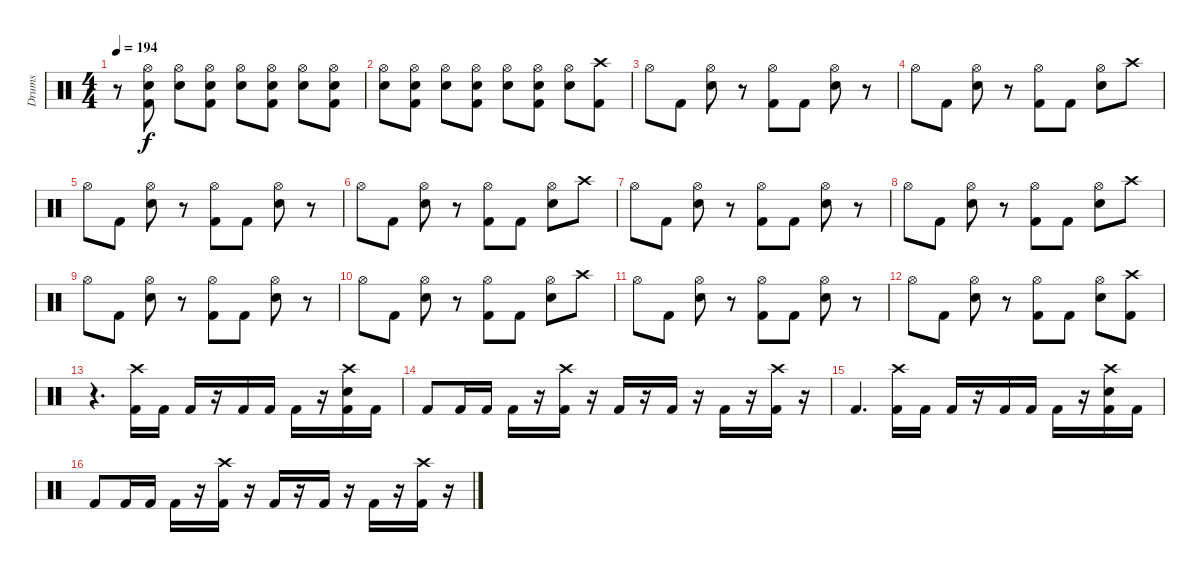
\track ("Drums" "Drums") {instrument percussion}
\staff {score}
\articulation defaults
\ts (4 4)
\tempo 194
\clef neutral
\ks c
r.8{dy f} ("Hi-Hat (open)" "Electric Snare (hit)" "Kick (hit) 2").8 ("Hi-Hat (open)" "Electric Snare (hit)").8 ("Hi-Hat (open)" "Electric Snare (hit)" "Kick (hit) 2").8 ("Hi-Hat (open)" "Electric Snare (hit)").8 ("Hi-Hat (open)" "Electric Snare (hit)" "Kick (hit) 2").8 ("Hi-Hat (open)" "Electric Snare (hit)").8 ("Hi-Hat (open)" "Electric Snare (hit)" "Kick (hit) 2").8 |
("Hi-Hat (open)" "Electric Snare (hit)").8 ("Hi-Hat (open)" "Electric Snare (hit)" "Kick (hit) 2").8 ("Hi-Hat (open)" "Electric Snare (hit)").8 ("Hi-Hat (open)" "Electric Snare (hit)" "Kick (hit) 2").8 ("Hi-Hat (open)" "Electric Snare (hit)").8 ("Hi-Hat (open)" "Electric Snare (hit)" "Kick (hit) 2").8 ("Hi-Hat (open)" "Electric Snare (hit)").8 ("Crash high (hit)" "Kick (hit) 2").8 |
"Hi-Hat (open)".8 "Kick (hit) 2".8 ("Hi-Hat (open)" "Electric Snare (hit)").8 r.8 ("Hi-Hat (open)" "Kick (hit) 2").8 "Kick (hit) 2".8 ("Hi-Hat (open)" "Electric Snare (hit)").8 r.8 |
"Hi-Hat (open)".8 "Kick (hit) 2".8 ("Hi-Hat (open)" "Electric Snare (hit)").8 r.8 ("Hi-Hat (open)" "Kick (hit) 2").8 "Kick (hit) 2".8 ("Hi-Hat (open)" "Electric Snare (hit)").8 "Crash high (hit)".8 |
"Hi-Hat (open)".8 "Kick (hit) 2".8 ("Hi-Hat (open)" "Electric Snare (hit)").8 r.8 ("Hi-Hat (open)" "Kick (hit) 2").8 "Kick (hit) 2".8 ("Hi-Hat (open)" "Electric Snare (hit)").8 r.8 |
"Hi-Hat (open)".8 "Kick (hit) 2".8 ("Hi-Hat (open)" "Electric Snare (hit)").8 r.8 ("Hi-Hat (open)" "Kick (hit) 2").8 "Kick (hit) 2".8 ("Hi-Hat (open)" "Electric Snare (hit)").8 "Crash high (hit)".8 |
"Hi-Hat (open)".8 "Kick (hit) 2".8 ("Hi-Hat (open)" "Electric Snare (hit)").8 r.8 ("Hi-Hat (open)" "Kick (hit) 2").8 "Kick (hit) 2".8 ("Hi-Hat (open)" "Electric Snare (hit)").8 r.8 |
"Hi-Hat (open)".8 "Kick (hit) 2".8 ("Hi-Hat (open)" "Electric Snare (hit)").8 r.8 ("Hi-Hat (open)" "Kick (hit) 2").8 "Kick (hit) 2".8 ("Hi-Hat (open)" "Electric Snare (hit)").8 "Crash high (hit)".8 |
"Hi-Hat (open)".8 "Kick (hit) 2".8 ("Hi-Hat (open)" "Electric Snare (hit)").8 r.8 ("Hi-Hat (open)" "Kick (hit) 2").8 "Kick (hit) 2".8 ("Hi-Hat (open)" "Electric Snare (hit)").8 r.8 |
"Hi-Hat (open)".8 "Kick (hit) 2".8 ("Hi-Hat (open)" "Electric Snare (hit)").8 r.8 ("Hi-Hat (open)" "Kick (hit) 2").8 "Kick (hit) 2".8 ("Hi-Hat (open)" "Electric Snare (hit)").8 "Crash high (hit)".8 |
"Hi-Hat (open)".8 "Kick (hit) 2".8 ("Hi-Hat (open)" "Electric Snare (hit)").8 r.8 ("Hi-Hat (open)" "Kick (hit) 2").8 "Kick (hit) 2".8 ("Hi-Hat (open)" "Electric Snare (hit)").8 r.8 |
"Hi-Hat (open)".8 "Kick (hit) 2".8 ("Hi-Hat (open)" "Electric Snare (hit)").8 r.8 ("Hi-Hat (open)" "Kick (hit) 2").8 "Kick (hit) 2".8 ("Hi-Hat (open)" "Electric Snare (hit)").8 ("Crash high (hit)" "Kick (hit) 2").8 |
r.4{d} ("Crash high (hit)" "Kick (hit) 2").16 "Kick (hit) 2".16 "Kick (hit) 2".16 r.16 "Kick (hit) 2".16 "Kick (hit) 2".16 "Kick (hit) 2".16 r.16 ("Crash high (hit)" "Electric Snare (hit)" "Kick (hit) 2").16 "Kick (hit) 2".16 |
"Kick (hit) 2".8 "Kick (hit) 2".16 "Kick (hit) 2".16 "Kick (hit) 2".16 r.16 ("Crash high (hit)" "Kick (hit) 2").16 r.16 "Kick (hit) 2".16 r.16 "Kick (hit) 2".16 r.16 "Kick (hit) 2".16 r.16 ("Crash high (hit)" "Kick (hit) 2").16 r.16 |
"Kick (hit) 2".4{d} ("Crash high (hit)" "Kick (hit) 2").16 "Kick (hit) 2".16 "Kick (hit) 2".16 r.16 "Kick (hit) 2".16 "Kick (hit) 2".16 "Kick (hit) 2".16 r.16 ("Crash high (hit)" "Electric Snare (hit)" "Kick (hit) 2").16 "Kick (hit) 2".16 |
"Kick (hit) 2".8 "Kick (hit) 2".16 "Kick (hit) 2".16 "Kick (hit) 2".16 r.16 ("Crash high (hit)" "Kick (hit) 2").16 r.16 "Kick (hit) 2".16 r.16 "Kick (hit) 2".16 r.16 "Kick (hit) 2".16 r.16 ("Crash high (hit)" "Kick (hit) 2").16 r.16
